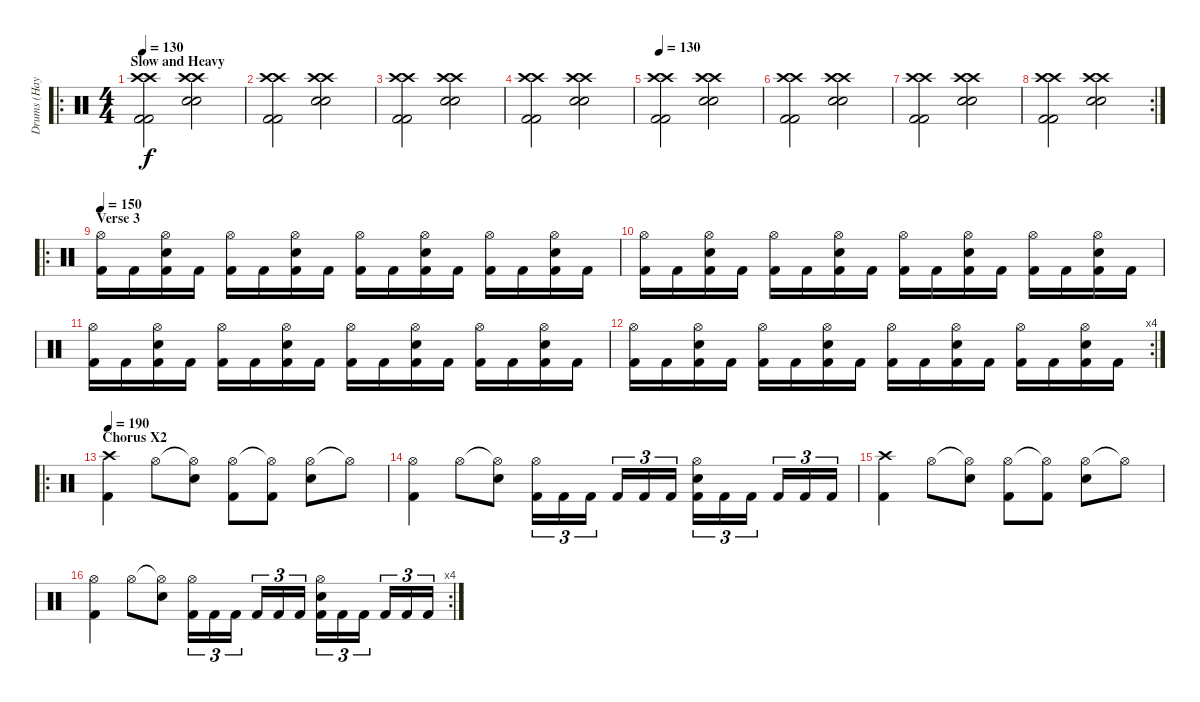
\track ("Drums (Hayden)" "Drums (Hay") {instrument percussion}
\staff {score}
\articulation defaults
\ro
\ts (4 4)
\section ("" "Slow and Heavy")
\tempo 130
\clef neutral
\ks c
("Crash high (hit)" "Kick (hit) 2" "Kick (hit) 2" "Crash high (hit)").2{dy f} ("Crash high (hit)" "Electric Snare (hit)" "Electric Snare (hit)" "Crash high (hit)").2 |
("Crash high (hit)" "Kick (hit) 2" "Kick (hit) 2" "Crash high (hit)").2 ("Crash high (hit)" "Electric Snare (hit)" "Electric Snare (hit)" "Crash high (hit)").2 |
("Crash high (hit)" "Kick (hit) 2" "Kick (hit) 2" "Crash high (hit)").2 ("Crash high (hit)" "Electric Snare (hit)" "Electric Snare (hit)" "Crash high (hit)").2 |
("Crash high (hit)" "Kick (hit) 2" "Kick (hit) 2" "Crash high (hit)").2 ("Crash high (hit)" "Electric Snare (hit)" "Electric Snare (hit)" "Crash high (hit)").2 |
\tempo 130
("Crash high (hit)" "Kick (hit) 2" "Kick (hit) 2" "Crash high (hit)").2 ("Crash high (hit)" "Electric Snare (hit)" "Electric Snare (hit)" "Crash high (hit)").2 |
("Crash high (hit)" "Kick (hit) 2" "Kick (hit) 2" "Crash high (hit)").2 ("Crash high (hit)" "Electric Snare (hit)" "Electric Snare (hit)" "Crash high (hit)").2 |
("Crash high (hit)" "Kick (hit) 2" "Kick (hit) 2" "Crash high (hit)").2 ("Crash high (hit)" "Electric Snare (hit)" "Electric Snare (hit)" "Crash high (hit)").2 |
\rc 2
("Crash high (hit)" "Kick (hit) 2" "Kick (hit) 2" "Crash high (hit)").2 ("Crash high (hit)" "Electric Snare (hit)" "Electric Snare (hit)" "Crash high (hit)").2 |
\ro
\section ("" "Verse 3")
\tempo 150
("Kick (hit) 2" "Hi-Hat (open)").16 "Kick (hit) 2".16 ("Kick (hit) 2" "Hi-Hat (open)" "Electric Snare (hit)").16 "Kick (hit) 2".16 ("Kick (hit) 2" "Hi-Hat (open)").16 "Kick (hit) 2".16 ("Kick (hit) 2" "Hi-Hat (open)" "Electric Snare (hit)").16 "Kick (hit) 2".16 ("Kick (hit) 2" "Hi-Hat (open)").16 "Kick (hit) 2".16 ("Kick (hit) 2" "Hi-Hat (open)" "Electric Snare (hit)").16 "Kick (hit) 2".16 ("Kick (hit) 2" "Hi-Hat (open)").16 "Kick (hit) 2".16 ("Kick (hit) 2" "Hi-Hat (open)" "Electric Snare (hit)").16 "Kick (hit) 2".16 |
("Kick (hit) 2" "Hi-Hat (open)").16 "Kick (hit) 2".16 ("Kick (hit) 2" "Hi-Hat (open)" "Electric Snare (hit)").16 "Kick (hit) 2".16 ("Kick (hit) 2" "Hi-Hat (open)").16 "Kick (hit) 2".16 ("Kick (hit) 2" "Hi-Hat (open)" "Electric Snare (hit)").16 "Kick (hit) 2".16 ("Kick (hit) 2" "Hi-Hat (open)").16 "Kick (hit) 2".16 ("Kick (hit) 2" "Hi-Hat (open)" "Electric Snare (hit)").16 "Kick (hit) 2".16 ("Kick (hit) 2" "Hi-Hat (open)").16 "Kick (hit) 2".16 ("Kick (hit) 2" "Hi-Hat (open)" "Electric Snare (hit)").16 "Kick (hit) 2".16 |
("Kick (hit) 2" "Hi-Hat (open)").16 "Kick (hit) 2".16 ("Kick (hit) 2" "Hi-Hat (open)" "Electric Snare (hit)").16 "Kick (hit) 2".16 ("Kick (hit) 2" "Hi-Hat (open)").16 "Kick (hit) 2".16 ("Kick (hit) 2" "Hi-Hat (open)" "Electric Snare (hit)").16 "Kick (hit) 2".16 ("Kick (hit) 2" "Hi-Hat (open)").16 "Kick (hit) 2".16 ("Kick (hit) 2" "Hi-Hat (open)" "Electric Snare (hit)").16 "Kick (hit) 2".16 ("Kick (hit) 2" "Hi-Hat (open)").16 "Kick (hit) 2".16 ("Kick (hit) 2" "Hi-Hat (open)" "Electric Snare (hit)").16 "Kick (hit) 2".16 |
\rc 4
("Kick (hit) 2" "Hi-Hat (open)").16 "Kick (hit) 2".16 ("Kick (hit) 2" "Hi-Hat (open)" "Electric Snare (hit)").16 "Kick (hit) 2".16 ("Kick (hit) 2" "Hi-Hat (open)").16 "Kick (hit) 2".16 ("Kick (hit) 2" "Hi-Hat (open)" "Electric Snare (hit)").16 "Kick (hit) 2".16 ("Kick (hit) 2" "Hi-Hat (open)").16 "Kick (hit) 2".16 ("Kick (hit) 2" "Hi-Hat (open)" "Electric Snare (hit)").16 "Kick (hit) 2".16 ("Kick (hit) 2" "Hi-Hat (open)").16 "Kick (hit) 2".16 ("Kick (hit) 2" "Hi-Hat (open)" "Electric Snare (hit)").16 "Kick (hit) 2".16 |
\ro
\section ("" "Chorus X2")
\tempo 190
("Crash high (hit)" "Kick (hit) 2").4 "Hi-Hat (open)".8 ("Hi-Hat (open)"{t} "Electric Snare (hit)").8 ("Hi-Hat (open)" "Kick (hit) 2").8 ("Hi-Hat (open)"{t} "Kick (hit) 2").8 ("Hi-Hat (open)" "Electric Snare (hit)").8 "Hi-Hat (open)"{t}.8 |
("Hi-Hat (open)" "Kick (hit) 2").4 "Hi-Hat (open)".8 ("Hi-Hat (open)"{t} "Electric Snare (hit)").8 ("Kick (hit) 2" "Hi-Hat (open)").16{tu (3 2)} "Kick (hit) 2".16{tu (3 2)} "Kick (hit) 2".16{tu (3 2)} "Kick (hit) 2".16{tu (3 2)} "Kick (hit) 2".16{tu (3 2)} "Kick (hit) 2".16{tu (3 2)} ("Kick (hit) 2" "Hi-Hat (open)" "Electric Snare (hit)").16{tu (3 2)} "Kick (hit) 2".16{tu (3 2)} "Kick (hit) 2".16{tu (3 2)} "Kick (hit) 2".16{tu (3 2)} "Kick (hit) 2".16{tu (3 2)} "Kick (hit) 2".16{tu (3 2)} |
("Crash high (hit)" "Kick (hit) 2").4 "Hi-Hat (open)".8 ("Hi-Hat (open)"{t} "Electric Snare (hit)").8 ("Hi-Hat (open)" "Kick (hit) 2").8 ("Hi-Hat (open)"{t} "Kick (hit) 2").8 ("Hi-Hat (open)" "Electric Snare (hit)").8 "Hi-Hat (open)"{t}.8 |
\rc 4
("Hi-Hat (open)" "Kick (hit) 2").4 "Hi-Hat (open)".8 ("Hi-Hat (open)"{t} "Electric Snare (hit)").8 ("Kick (hit) 2" "Hi-Hat (open)").16{tu (3 2)} "Kick (hit) 2".16{tu (3 2)} "Kick (hit) 2".16{tu (3 2)} "Kick (hit) 2".16{tu (3 2)} "Kick (hit) 2".16{tu (3 2)} "Kick (hit) 2".16{tu (3 2)} ("Kick (hit) 2" "Hi-Hat (open)" "Electric Snare (hit)").16{tu (3 2)} "Kick (hit) 2".16{tu (3 2)} "Kick (hit) 2".16{tu (3 2)} "Kick (hit) 2".16{tu (3 2)} "Kick (hit) 2".16{tu (3 2)} "Kick (hit) 2".16{tu (3 2)}
